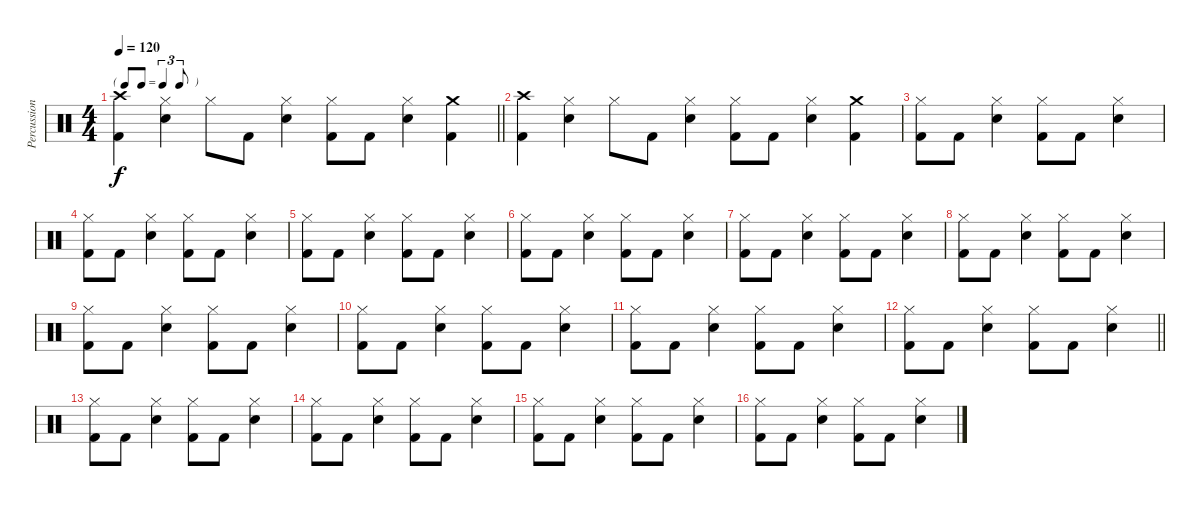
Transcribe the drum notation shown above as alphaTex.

\track ("Percussion" "Percussion") {instrument percussion}
\staff {score}
\articulation defaults
\ts (4 4)
\tf triplet8th
\tempo 120
\clef neutral
\barLineRight lightlight
\ks c
("Crash high (hit)" "Kick (hit) 2").4{dy f} ("Hi-Hat (closed)" "Electric Snare (hit)").4 "Hi-Hat (closed)".8 "Kick (hit) 2".8 ("Hi-Hat (closed)" "Electric Snare (hit)").4 ("Hi-Hat (closed)" "Kick (hit) 2").8 "Kick (hit) 2".8 ("Hi-Hat (closed)" "Electric Snare (hit)").4 ("Crash medium (hit)" "Kick (hit) 2").4 |
("Crash high (hit)" "Kick (hit) 2").4 ("Hi-Hat (closed)" "Electric Snare (hit)").4 "Hi-Hat (closed)".8 "Kick (hit) 2".8 ("Hi-Hat (closed)" "Electric Snare (hit)").4 ("Hi-Hat (closed)" "Kick (hit) 2").8 "Kick (hit) 2".8 ("Hi-Hat (closed)" "Electric Snare (hit)").4 ("Crash medium (hit)" "Kick (hit) 2").4 |
("Hi-Hat (closed)" "Kick (hit) 2").8 "Kick (hit) 2".8 ("Hi-Hat (closed)" "Electric Snare (hit)").4 ("Hi-Hat (closed)" "Kick (hit) 2").8 "Kick (hit) 2".8 ("Hi-Hat (closed)" "Electric Snare (hit)").4 |
("Hi-Hat (closed)" "Kick (hit) 2").8 "Kick (hit) 2".8 ("Hi-Hat (closed)" "Electric Snare (hit)").4 ("Hi-Hat (closed)" "Kick (hit) 2").8 "Kick (hit) 2".8 ("Hi-Hat (closed)" "Electric Snare (hit)").4 |
("Hi-Hat (closed)" "Kick (hit) 2").8 "Kick (hit) 2".8 ("Hi-Hat (closed)" "Electric Snare (hit)").4 ("Hi-Hat (closed)" "Kick (hit) 2").8 "Kick (hit) 2".8 ("Hi-Hat (closed)" "Electric Snare (hit)").4 |
("Hi-Hat (closed)" "Kick (hit) 2").8 "Kick (hit) 2".8 ("Hi-Hat (closed)" "Electric Snare (hit)").4 ("Hi-Hat (closed)" "Kick (hit) 2").8 "Kick (hit) 2".8 ("Hi-Hat (closed)" "Electric Snare (hit)").4 |
("Hi-Hat (closed)" "Kick (hit) 2").8 "Kick (hit) 2".8 ("Hi-Hat (closed)" "Electric Snare (hit)").4 ("Hi-Hat (closed)" "Kick (hit) 2").8 "Kick (hit) 2".8 ("Hi-Hat (closed)" "Electric Snare (hit)").4 |
("Hi-Hat (closed)" "Kick (hit) 2").8 "Kick (hit) 2".8 ("Hi-Hat (closed)" "Electric Snare (hit)").4 ("Hi-Hat (closed)" "Kick (hit) 2").8 "Kick (hit) 2".8 ("Hi-Hat (closed)" "Electric Snare (hit)").4 |
("Hi-Hat (closed)" "Kick (hit) 2").8 "Kick (hit) 2".8 ("Hi-Hat (closed)" "Electric Snare (hit)").4 ("Hi-Hat (closed)" "Kick (hit) 2").8 "Kick (hit) 2".8 ("Hi-Hat (closed)" "Electric Snare (hit)").4 |
("Hi-Hat (closed)" "Kick (hit) 2").8 "Kick (hit) 2".8 ("Hi-Hat (closed)" "Electric Snare (hit)").4 ("Hi-Hat (closed)" "Kick (hit) 2").8 "Kick (hit) 2".8 ("Hi-Hat (closed)" "Electric Snare (hit)").4 |
("Hi-Hat (closed)" "Kick (hit) 2").8 "Kick (hit) 2".8 ("Hi-Hat (closed)" "Electric Snare (hit)").4 ("Hi-Hat (closed)" "Kick (hit) 2").8 "Kick (hit) 2".8 ("Hi-Hat (closed)" "Electric Snare (hit)").4 |
\barLineRight lightlight
("Hi-Hat (closed)" "Kick (hit) 2").8 "Kick (hit) 2".8 ("Hi-Hat (closed)" "Electric Snare (hit)").4 ("Hi-Hat (closed)" "Kick (hit) 2").8 "Kick (hit) 2".8 ("Hi-Hat (closed)" "Electric Snare (hit)").4 |
("Hi-Hat (closed)" "Kick (hit) 2").8 "Kick (hit) 2".8 ("Hi-Hat (closed)" "Electric Snare (hit)").4 ("Hi-Hat (closed)" "Kick (hit) 2").8 "Kick (hit) 2".8 ("Hi-Hat (closed)" "Electric Snare (hit)").4 |
("Hi-Hat (closed)" "Kick (hit) 2").8 "Kick (hit) 2".8 ("Hi-Hat (closed)" "Electric Snare (hit)").4 ("Hi-Hat (closed)" "Kick (hit) 2").8 "Kick (hit) 2".8 ("Hi-Hat (closed)" "Electric Snare (hit)").4 |
("Hi-Hat (closed)" "Kick (hit) 2").8 "Kick (hit) 2".8 ("Hi-Hat (closed)" "Electric Snare (hit)").4 ("Hi-Hat (closed)" "Kick (hit) 2").8 "Kick (hit) 2".8 ("Hi-Hat (closed)" "Electric Snare (hit)").4 |
("Hi-Hat (closed)" "Kick (hit) 2").8 "Kick (hit) 2".8 ("Hi-Hat (closed)" "Electric Snare (hit)").4 ("Hi-Hat (closed)" "Kick (hit) 2").8 "Kick (hit) 2".8 ("Hi-Hat (closed)" "Electric Snare (hit)").4
